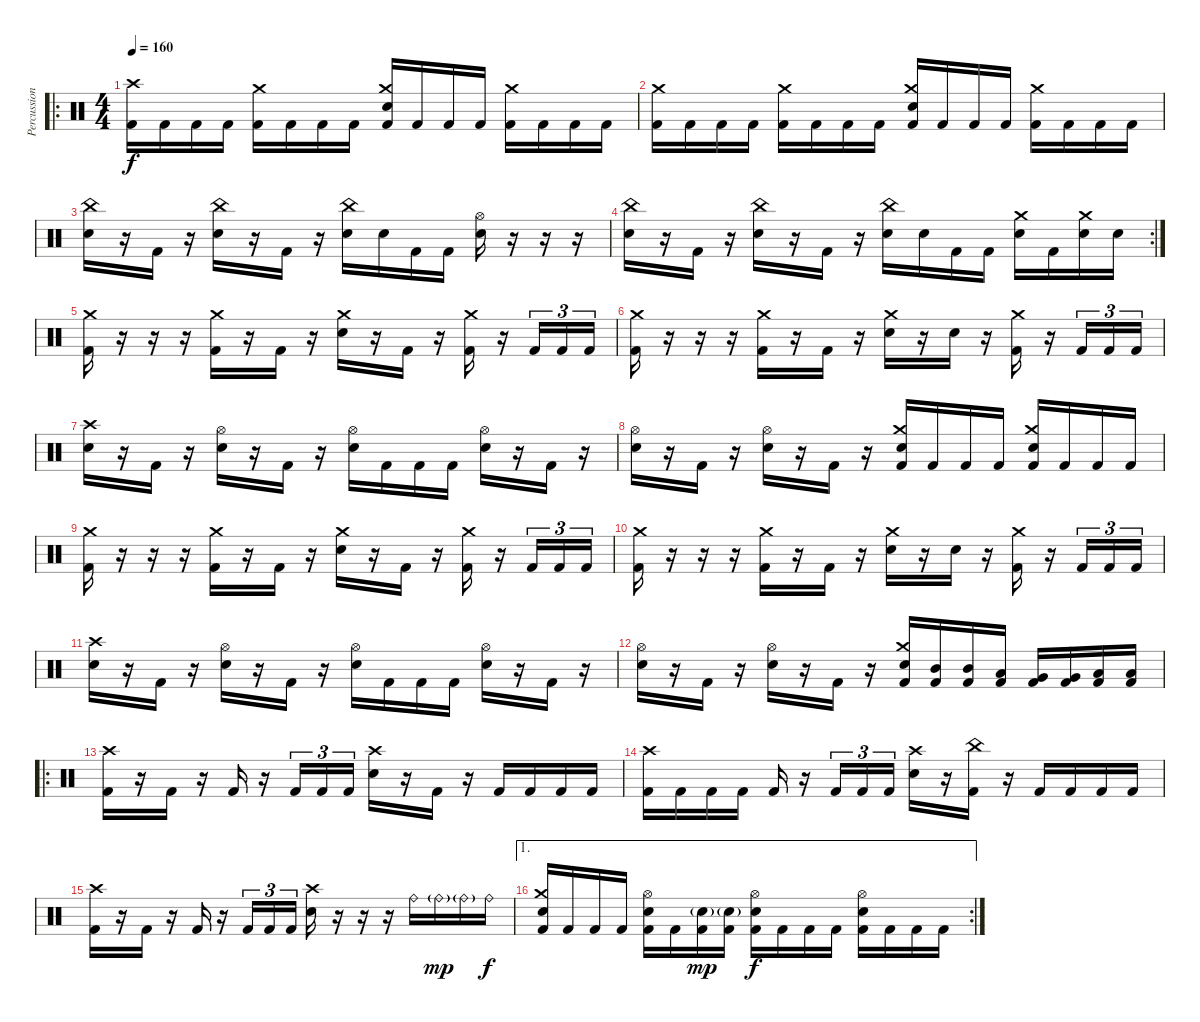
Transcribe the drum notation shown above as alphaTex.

\track ("Percussion" "Percussion") {instrument percussion}
\staff {score}
\articulation defaults
\ro
\ts (4 4)
\tempo 160
\clef neutral
\ks c
("Crash high (hit)" "Kick (hit) 2").16{dy f} "Kick (hit) 2".16 "Kick (hit) 2".16 "Kick (hit) 2".16 ("Crash medium (hit)" "Kick (hit) 2").16 "Kick (hit) 2".16 "Kick (hit) 2".16 "Kick (hit) 2".16 ("Crash medium (hit)" "Electric Snare (hit)" "Kick (hit) 2").16 "Kick (hit) 2".16 "Kick (hit) 2".16 "Kick (hit) 2".16 ("Crash medium (hit)" "Kick (hit) 2").16 "Kick (hit) 2".16 "Kick (hit) 2".16 "Kick (hit) 2".16 |
("Crash medium (hit)" "Kick (hit) 2").16 "Kick (hit) 2".16 "Kick (hit) 2".16 "Kick (hit) 2".16 ("Crash medium (hit)" "Kick (hit) 2").16 "Kick (hit) 2".16 "Kick (hit) 2".16 "Kick (hit) 2".16 ("Crash medium (hit)" "Electric Snare (hit)" "Kick (hit) 2").16 "Kick (hit) 2".16 "Kick (hit) 2".16 "Kick (hit) 2".16 ("Crash medium (hit)" "Kick (hit) 2").16 "Kick (hit) 2".16 "Kick (hit) 2".16 "Kick (hit) 2".16 |
("China (hit)" "Electric Snare (hit)").16 r.16 "Kick (hit) 2".16 r.16 ("China (hit)" "Electric Snare (hit)").16 r.16 "Kick (hit) 2".16 r.16 ("China (hit)" "Electric Snare (hit)").16 "Electric Snare (hit)".16 "Kick (hit) 2".16 "Kick (hit) 2".16 ("Hi-Hat (open)" "Electric Snare (hit)").16 r.16 r.16 r.16 |
\rc 2
("China (hit)" "Electric Snare (hit)").16 r.16 "Kick (hit) 2".16 r.16 ("China (hit)" "Electric Snare (hit)").16 r.16 "Kick (hit) 2".16 r.16 ("China (hit)" "Electric Snare (hit)").16 "Electric Snare (hit)".16 "Kick (hit) 2".16 "Kick (hit) 2".16 ("Crash medium (hit)" "Electric Snare (hit)").16 "Kick (hit) 2".16 ("Crash medium (hit)" "Electric Snare (hit)").16 "Electric Snare (hit)".16 |
("Crash medium (hit)" "Kick (hit) 2").16 r.16 r.16 r.16 ("Crash medium (hit)" "Kick (hit) 2").16 r.16 "Kick (hit) 2".16 r.16 ("Crash medium (hit)" "Electric Snare (hit)").16 r.16 "Kick (hit) 2".16 r.16 ("Crash medium (hit)" "Kick (hit) 2").16 r.16 "Kick (hit) 2".16{tu (3 2)} "Kick (hit) 2".16{tu (3 2)} "Kick (hit) 2".16{tu (3 2)} |
("Crash medium (hit)" "Kick (hit) 2").16 r.16 r.16 r.16 ("Crash medium (hit)" "Kick (hit) 2").16 r.16 "Kick (hit) 2".16 r.16 ("Crash medium (hit)" "Electric Snare (hit)").16 r.16 "Electric Snare (hit)".16 r.16 ("Crash medium (hit)" "Kick (hit) 2").16 r.16 "Kick (hit) 2".16{tu (3 2)} "Kick (hit) 2".16{tu (3 2)} "Kick (hit) 2".16{tu (3 2)} |
("Crash high (hit)" "Electric Snare (hit)").16 r.16 "Kick (hit) 2".16 r.16 ("Hi-Hat (open)" "Electric Snare (hit)").16 r.16 "Kick (hit) 2".16 r.16 ("Hi-Hat (open)" "Electric Snare (hit)").16 "Kick (hit) 2".16 "Kick (hit) 2".16 "Kick (hit) 2".16 ("Hi-Hat (open)" "Electric Snare (hit)").16 r.16 "Kick (hit) 2".16 r.16 |
("Hi-Hat (open)" "Electric Snare (hit)").16 r.16 "Kick (hit) 2".16 r.16 ("Hi-Hat (open)" "Electric Snare (hit)").16 r.16 "Kick (hit) 2".16 r.16 ("Crash medium (hit)" "Electric Snare (hit)" "Kick (hit) 2").16 "Kick (hit) 2".16 "Kick (hit) 2".16 "Kick (hit) 2".16 ("Crash medium (hit)" "Electric Snare (hit)" "Kick (hit) 2").16 "Kick (hit) 2".16 "Kick (hit) 2".16 "Kick (hit) 2".16 |
("Crash medium (hit)" "Kick (hit) 2").16 r.16 r.16 r.16 ("Crash medium (hit)" "Kick (hit) 2").16 r.16 "Kick (hit) 2".16 r.16 ("Crash medium (hit)" "Electric Snare (hit)").16 r.16 "Kick (hit) 2".16 r.16 ("Crash medium (hit)" "Kick (hit) 2").16 r.16 "Kick (hit) 2".16{tu (3 2)} "Kick (hit) 2".16{tu (3 2)} "Kick (hit) 2".16{tu (3 2)} |
("Crash medium (hit)" "Kick (hit) 2").16 r.16 r.16 r.16 ("Crash medium (hit)" "Kick (hit) 2").16 r.16 "Kick (hit) 2".16 r.16 ("Crash medium (hit)" "Electric Snare (hit)").16 r.16 "Electric Snare (hit)".16 r.16 ("Crash medium (hit)" "Kick (hit) 2").16 r.16 "Kick (hit) 2".16{tu (3 2)} "Kick (hit) 2".16{tu (3 2)} "Kick (hit) 2".16{tu (3 2)} |
("Crash high (hit)" "Electric Snare (hit)").16 r.16 "Kick (hit) 2".16 r.16 ("Hi-Hat (open)" "Electric Snare (hit)").16 r.16 "Kick (hit) 2".16 r.16 ("Hi-Hat (open)" "Electric Snare (hit)").16 "Kick (hit) 2".16 "Kick (hit) 2".16 "Kick (hit) 2".16 ("Hi-Hat (open)" "Electric Snare (hit)").16 r.16 "Kick (hit) 2".16 r.16 |
("Hi-Hat (open)" "Electric Snare (hit)").16 r.16 "Kick (hit) 2".16 r.16 ("Hi-Hat (open)" "Electric Snare (hit)").16 r.16 "Kick (hit) 2".16 r.16 ("Crash medium (hit)" "Electric Snare (hit)" "Kick (hit) 2").16 ("Mid Tom (hit)" "Kick (hit) 2").16 ("Mid Tom (hit)" "Kick (hit) 2").16 ("Low Tom (hit)" "Kick (hit) 2").16 ("Very Low Tom (hit)" "Kick (hit) 2").16 ("Very Low Tom (hit)" "Kick (hit) 2").16 ("Low Floor Tom (hit)" "Kick (hit) 2").16 ("Low Floor Tom (hit)" "Kick (hit) 2").16 |
\ro
("Crash high (hit)" "Kick (hit) 2").16 r.16 "Kick (hit) 2".16 r.16 "Kick (hit) 2".16 r.16 "Kick (hit) 2".16{tu (3 2)} "Kick (hit) 2".16{tu (3 2)} "Kick (hit) 2".16{tu (3 2)} ("Crash high (hit)" "Electric Snare (hit)").16 r.16 "Kick (hit) 2".16 r.16 "Kick (hit) 2".16 "Kick (hit) 2".16 "Kick (hit) 2".16 "Kick (hit) 2".16 |
("Crash high (hit)" "Kick (hit) 2").16 "Kick (hit) 2".16 "Kick (hit) 2".16 "Kick (hit) 2".16 "Kick (hit) 2".16 r.16 "Kick (hit) 2".16{tu (3 2)} "Kick (hit) 2".16{tu (3 2)} "Kick (hit) 2".16{tu (3 2)} ("Crash high (hit)" "Electric Snare (hit)").16 r.16 ("China (hit)" "Kick (hit) 2").16 r.16 "Kick (hit) 2".16 "Kick (hit) 2".16 "Kick (hit) 2".16 "Kick (hit) 2".16 |
("Crash high (hit)" "Kick (hit) 2").16 r.16 "Kick (hit) 2".16 r.16 "Kick (hit) 2".16 r.16 "Kick (hit) 2".16{tu (3 2)} "Kick (hit) 2".16{tu (3 2)} "Kick (hit) 2".16{tu (3 2)} ("Crash high (hit)" "Electric Snare (hit)").16 r.16 r.16 r.16 "Ride (bell)".16 "Ride (bell)"{g}.16{dy mp} "Ride (bell)"{g}.16 "Ride (bell)".16{dy f} |
\ae 1
\rc 2
("Crash medium (hit)" "Electric Snare (hit)" "Kick (hit) 2").16 "Kick (hit) 2".16 "Kick (hit) 2".16 "Kick (hit) 2".16 ("Hi-Hat (open)" "Electric Snare (hit)" "Kick (hit) 2").16 "Kick (hit) 2".16 ("Electric Snare (hit)"{g} "Kick (hit) 2").16{dy mp} ("Electric Snare (hit)"{g} "Kick (hit) 2").16 ("Hi-Hat (open)" "Electric Snare (hit)" "Kick (hit) 2").16{dy f} "Kick (hit) 2".16 "Kick (hit) 2".16 "Kick (hit) 2".16 ("Hi-Hat (open)" "Electric Snare (hit)" "Kick (hit) 2").16 "Kick (hit) 2".16 "Kick (hit) 2".16 "Kick (hit) 2".16
